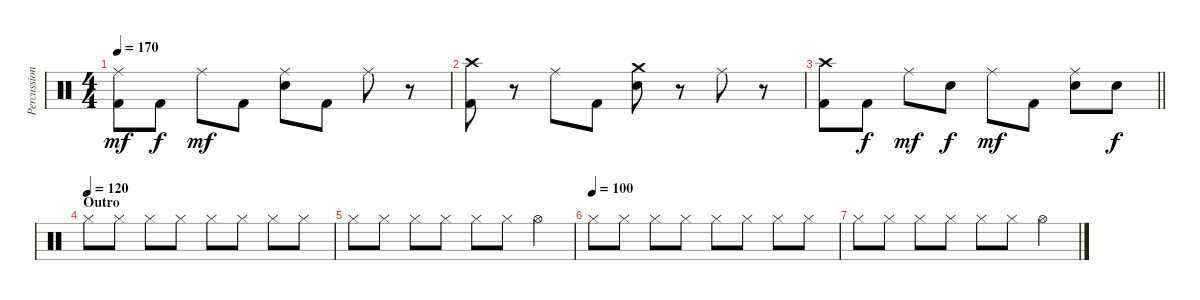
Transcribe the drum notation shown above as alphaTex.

\track ("Percussion" "Percussion") {instrument percussion}
\staff {score}
\articulation defaults
\ts (4 4)
\tempo 170
\clef neutral
\ks c
("Ride (middle)" "Kick (hit) 2").8{dy mf} "Kick (hit) 2".8{dy f} "Ride (middle)".8{dy mf} "Kick (hit) 2".8 ("Ride (middle)" "Electric Snare (hit)").8 "Kick (hit) 2".8 "Ride (middle)".8 r.8 |
("Crash high (hit)" "Kick (hit) 2").8 r.8 "Ride (middle)".8 "Kick (hit) 2".8 ("Crash medium (hit)" "Electric Snare (hit)").8 r.8 "Ride (middle)".8 r.8 |
\barLineRight lightlight
("Crash high (hit)" "Kick (hit) 2").8 "Kick (hit) 2".8{dy f} "Ride (middle)".8{dy mf} "Electric Snare (hit)".8{dy f} "Ride (middle)".8{dy mf} "Kick (hit) 2".8 ("Ride (middle)" "Electric Snare (hit)").8 "Electric Snare (hit)".8{dy f} |
\section ("" "Outro")
\tempo 130
\tempo (120)
"Hi-Hat (closed)".8 "Hi-Hat (closed)".8 "Hi-Hat (closed)".8 "Hi-Hat (closed)".8 "Hi-Hat (closed)".8 "Hi-Hat (closed)".8 "Hi-Hat (closed)".8 "Hi-Hat (closed)".8 |
"Hi-Hat (closed)".8 "Hi-Hat (closed)".8 "Hi-Hat (closed)".8 "Hi-Hat (closed)".8 "Hi-Hat (closed)".8 "Hi-Hat (closed)".8 "Hi-Hat (open)".4 |
\tempo (100)
"Hi-Hat (closed)".8 "Hi-Hat (closed)".8 "Hi-Hat (closed)".8 "Hi-Hat (closed)".8 "Hi-Hat (closed)".8 "Hi-Hat (closed)".8 "Hi-Hat (closed)".8 "Hi-Hat (closed)".8 |
"Hi-Hat (closed)".8 "Hi-Hat (closed)".8 "Hi-Hat (closed)".8 "Hi-Hat (closed)".8 "Hi-Hat (closed)".8 "Hi-Hat (closed)".8 "Hi-Hat (open)".4
